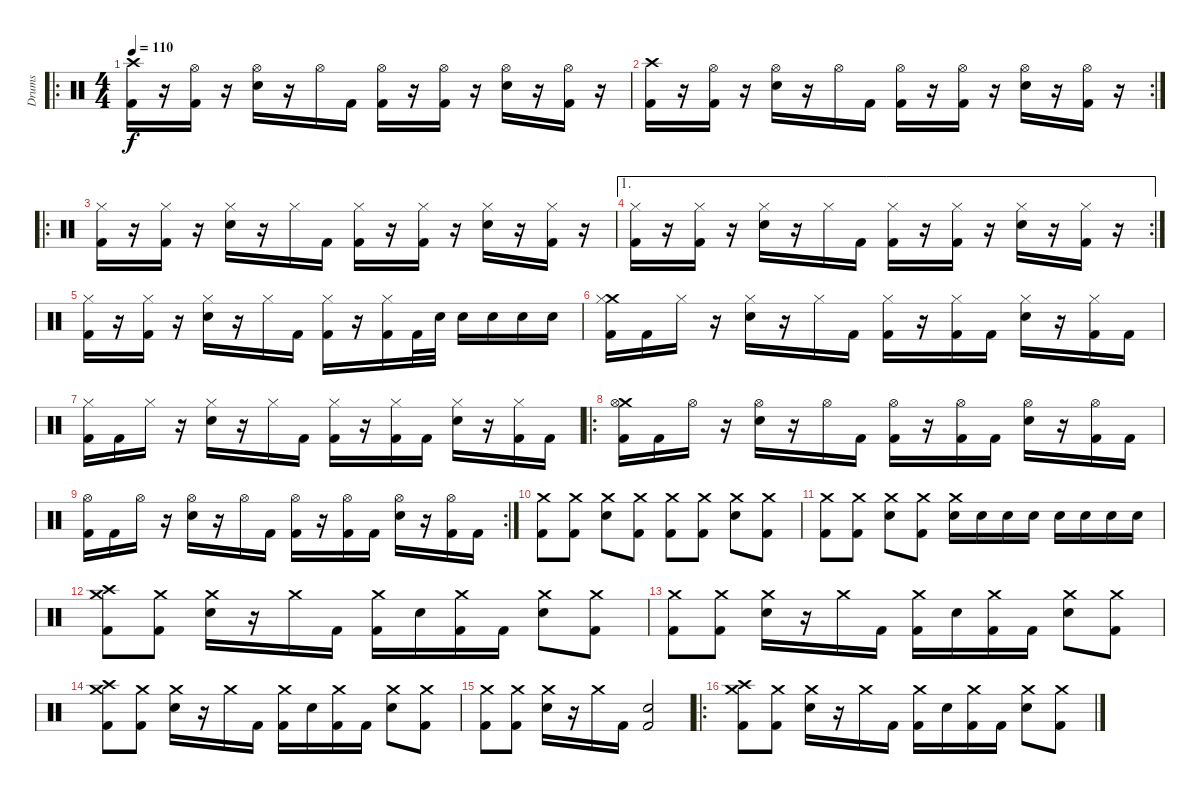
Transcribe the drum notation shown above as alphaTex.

\track ("Drums" "Drums") {instrument percussion}
\staff {score}
\articulation defaults
\ro
\ts (4 4)
\tempo 110
\clef neutral
\ks c
("Crash high (hit)" "Kick (hit) 2").16{dy f} r.16 ("Hi-Hat (open)" "Kick (hit) 2").16 r.16 ("Hi-Hat (open)" "Electric Snare (hit)").16 r.16 "Hi-Hat (open)".16 "Kick (hit) 2".16 ("Hi-Hat (open)" "Kick (hit) 2").16 r.16 ("Hi-Hat (open)" "Kick (hit) 2").16 r.16 ("Hi-Hat (open)" "Electric Snare (hit)").16 r.16 ("Hi-Hat (open)" "Kick (hit) 2").16 r.16 |
\rc 2
("Crash high (hit)" "Kick (hit) 2").16 r.16 ("Hi-Hat (open)" "Kick (hit) 2").16 r.16 ("Hi-Hat (open)" "Electric Snare (hit)").16 r.16 "Hi-Hat (open)".16 "Kick (hit) 2".16 ("Hi-Hat (open)" "Kick (hit) 2").16 r.16 ("Hi-Hat (open)" "Kick (hit) 2").16 r.16 ("Hi-Hat (open)" "Electric Snare (hit)").16 r.16 ("Hi-Hat (open)" "Kick (hit) 2").16 r.16 |
\ro
("Hi-Hat (closed)" "Kick (hit) 2").16 r.16 ("Hi-Hat (closed)" "Kick (hit) 2").16 r.16 ("Hi-Hat (closed)" "Electric Snare (hit)").16 r.16 "Hi-Hat (closed)".16 "Kick (hit) 2".16 ("Hi-Hat (closed)" "Kick (hit) 2").16 r.16 ("Hi-Hat (closed)" "Kick (hit) 2").16 r.16 ("Hi-Hat (closed)" "Electric Snare (hit)").16 r.16 ("Hi-Hat (closed)" "Kick (hit) 2").16 r.16 |
\ae 1
\rc 2
("Hi-Hat (closed)" "Kick (hit) 2").16 r.16 ("Hi-Hat (closed)" "Kick (hit) 2").16 r.16 ("Hi-Hat (closed)" "Electric Snare (hit)").16 r.16 "Hi-Hat (closed)".16 "Kick (hit) 2".16 ("Hi-Hat (closed)" "Kick (hit) 2").16 r.16 ("Hi-Hat (closed)" "Kick (hit) 2").16 r.16 ("Hi-Hat (closed)" "Electric Snare (hit)").16 r.16 ("Hi-Hat (closed)" "Kick (hit) 2").16 r.16 |
("Hi-Hat (closed)" "Kick (hit) 2").16 r.16 ("Hi-Hat (closed)" "Kick (hit) 2").16 r.16 ("Hi-Hat (closed)" "Electric Snare (hit)").16 r.16 "Hi-Hat (closed)".16 "Kick (hit) 2".16 ("Hi-Hat (closed)" "Kick (hit) 2").16 r.16 ("Hi-Hat (closed)" "Kick (hit) 2").16 "Kick (hit) 2".32 "Electric Snare (hit)".32 "Electric Snare (hit)".16 "Electric Snare (hit)".16 "Electric Snare (hit)".16 "Electric Snare (hit)".16 |
("Crash medium (hit)" "Hi-Hat (closed)" "Kick (hit) 2").16 "Kick (hit) 2".16 "Hi-Hat (closed)".16 r.16 ("Hi-Hat (closed)" "Electric Snare (hit)").16 r.16 "Hi-Hat (closed)".16 "Kick (hit) 2".16 ("Hi-Hat (closed)" "Kick (hit) 2").16 r.16 ("Hi-Hat (closed)" "Kick (hit) 2").16 "Kick (hit) 2".16 ("Hi-Hat (closed)" "Electric Snare (hit)").16 r.16 ("Hi-Hat (closed)" "Kick (hit) 2").16 "Kick (hit) 2".16 |
("Hi-Hat (closed)" "Kick (hit) 2").16 "Kick (hit) 2".16 "Hi-Hat (closed)".16 r.16 ("Hi-Hat (closed)" "Electric Snare (hit)").16 r.16 "Hi-Hat (closed)".16 "Kick (hit) 2".16 ("Hi-Hat (closed)" "Kick (hit) 2").16 r.16 ("Hi-Hat (closed)" "Kick (hit) 2").16 "Kick (hit) 2".16 ("Hi-Hat (closed)" "Electric Snare (hit)").16 r.16 ("Hi-Hat (closed)" "Kick (hit) 2").16 "Kick (hit) 2".16 |
\ro
("Crash medium (hit)" "Hi-Hat (open)" "Kick (hit) 2").16 "Kick (hit) 2".16 "Hi-Hat (open)".16 r.16 ("Hi-Hat (open)" "Electric Snare (hit)").16 r.16 "Hi-Hat (open)".16 "Kick (hit) 2".16 ("Hi-Hat (open)" "Kick (hit) 2").16 r.16 ("Hi-Hat (open)" "Kick (hit) 2").16 "Kick (hit) 2".16 ("Hi-Hat (open)" "Electric Snare (hit)").16 r.16 ("Hi-Hat (open)" "Kick (hit) 2").16 "Kick (hit) 2".16 |
\rc 2
("Hi-Hat (open)" "Kick (hit) 2").16 "Kick (hit) 2".16 "Hi-Hat (open)".16 r.16 ("Hi-Hat (open)" "Electric Snare (hit)").16 r.16 "Hi-Hat (open)".16 "Kick (hit) 2".16 ("Hi-Hat (open)" "Kick (hit) 2").16 r.16 ("Hi-Hat (open)" "Kick (hit) 2").16 "Kick (hit) 2".16 ("Hi-Hat (open)" "Electric Snare (hit)").16 r.16 ("Hi-Hat (open)" "Kick (hit) 2").16 "Kick (hit) 2".16 |
("Crash medium (hit)" "Kick (hit) 2").8 ("Crash medium (hit)" "Kick (hit) 2").8 ("Crash medium (hit)" "Electric Snare (hit)").8 ("Crash medium (hit)" "Kick (hit) 2").8 ("Crash medium (hit)" "Kick (hit) 2").8 ("Crash medium (hit)" "Kick (hit) 2").8 ("Crash medium (hit)" "Electric Snare (hit)").8 ("Crash medium (hit)" "Kick (hit) 2").8 |
("Crash medium (hit)" "Kick (hit) 2").8 ("Crash medium (hit)" "Kick (hit) 2").8 ("Crash medium (hit)" "Electric Snare (hit)").8 ("Crash medium (hit)" "Kick (hit) 2").8 ("Crash medium (hit)" "Electric Snare (hit)").16 "Electric Snare (hit)".16 "Electric Snare (hit)".16 "Electric Snare (hit)".16 "Electric Snare (hit)".16 "Electric Snare (hit)".16 "Electric Snare (hit)".16 "Electric Snare (hit)".16 |
("Crash high (hit)" "Crash medium (hit)" "Kick (hit) 2").8 ("Crash medium (hit)" "Kick (hit) 2").8 ("Crash medium (hit)" "Electric Snare (hit)").16 r.16 "Crash medium (hit)".16 "Kick (hit) 2".16 ("Crash medium (hit)" "Kick (hit) 2").16 "Electric Snare (hit)".16 ("Crash medium (hit)" "Kick (hit) 2").16 "Kick (hit) 2".16 ("Crash medium (hit)" "Electric Snare (hit)").8 ("Crash medium (hit)" "Kick (hit) 2").8 |
("Crash medium (hit)" "Kick (hit) 2").8 ("Crash medium (hit)" "Kick (hit) 2").8 ("Crash medium (hit)" "Electric Snare (hit)").16 r.16 "Crash medium (hit)".16 "Kick (hit) 2".16 ("Crash medium (hit)" "Kick (hit) 2").16 "Electric Snare (hit)".16 ("Crash medium (hit)" "Kick (hit) 2").16 "Kick (hit) 2".16 ("Crash medium (hit)" "Electric Snare (hit)").8 ("Crash medium (hit)" "Kick (hit) 2").8 |
("Crash high (hit)" "Crash medium (hit)" "Kick (hit) 2").8 ("Crash medium (hit)" "Kick (hit) 2").8 ("Crash medium (hit)" "Electric Snare (hit)").16 r.16 "Crash medium (hit)".16 "Kick (hit) 2".16 ("Crash medium (hit)" "Kick (hit) 2").16 "Electric Snare (hit)".16 ("Crash medium (hit)" "Kick (hit) 2").16 "Kick (hit) 2".16 ("Crash medium (hit)" "Electric Snare (hit)").8 ("Crash medium (hit)" "Kick (hit) 2").8 |
("Crash medium (hit)" "Kick (hit) 2").8 ("Crash medium (hit)" "Kick (hit) 2").8 ("Crash medium (hit)" "Electric Snare (hit)").16 r.16 "Crash medium (hit)".16 "Kick (hit) 2".16 ("Electric Snare (hit)" "Kick (hit) 2").2 |
\ro
("Crash high (hit)" "Crash medium (hit)" "Kick (hit) 2").8 ("Crash medium (hit)" "Kick (hit) 2").8 ("Crash medium (hit)" "Electric Snare (hit)").16 r.16 "Crash medium (hit)".16 "Kick (hit) 2".16 ("Crash medium (hit)" "Kick (hit) 2").16 "Electric Snare (hit)".16 ("Crash medium (hit)" "Kick (hit) 2").16 "Kick (hit) 2".16 ("Crash medium (hit)" "Electric Snare (hit)").8 ("Crash medium (hit)" "Kick (hit) 2").8
